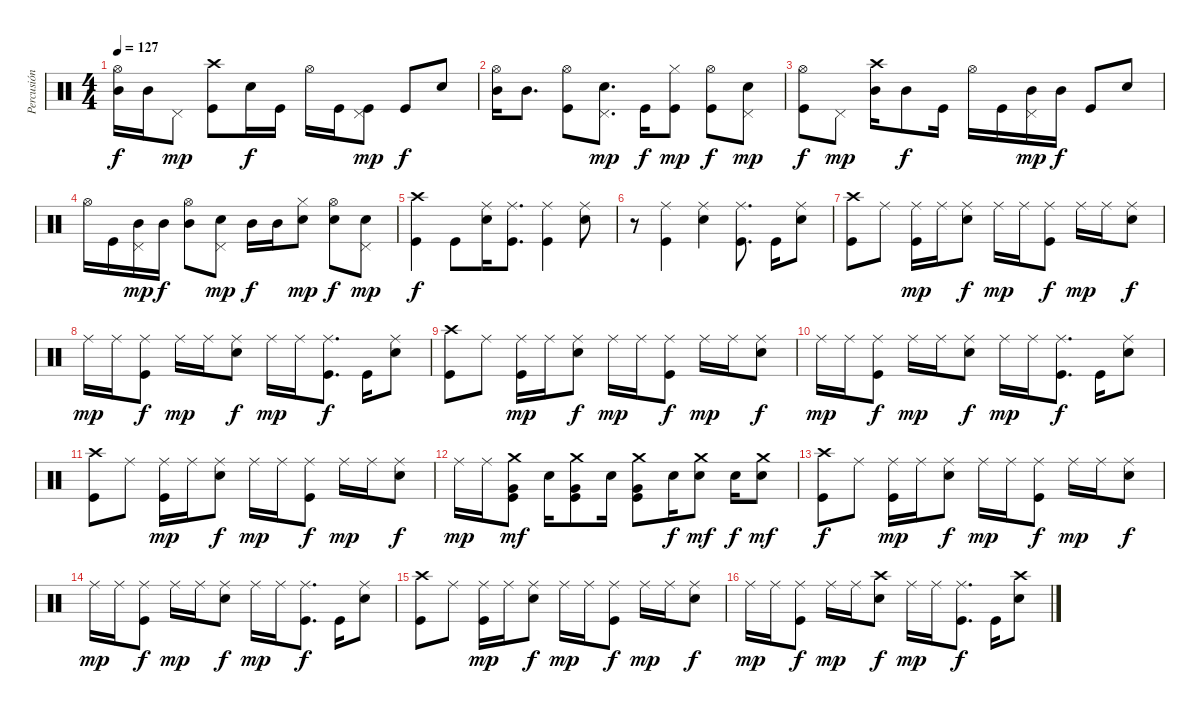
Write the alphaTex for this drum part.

\track ("Percusión" "Percusión") {instrument percussion}
\staff {score}
\articulation defaults
\ts (4 4)
\tempo 127
\clef neutral
\ks c
("Mid Tom (hit)" "Hi-Hat (open)").16{dy f} "Mid Tom (hit)".16 "Pedal Hi-Hat (hit)".8{dy mp} ("Kick (hit)" "Crash high (hit)").8 "Snare (hit) 2".16{dy f} "Kick (hit)".16 "Hi-Hat (open)".16 "Kick (hit)".16 ("Kick (hit)" "Pedal Hi-Hat (hit)").8{dy mp} "Kick (hit)".8{dy f} "Snare (hit) 2".8 |
("Mid Tom (hit)" "Hi-Hat (open)").16 "Mid Tom (hit)".8{d} ("Kick (hit)" "Hi-Hat (open)").8 ("Snare (hit) 2" "Pedal Hi-Hat (hit)").8{d dy mp} "Kick (hit)".16{dy f} ("Kick (hit)" "Hi-Hat (closed)").8{dy mp} ("Kick (hit)" "Hi-Hat (open)").8{dy f} ("Snare (hit) 2" "Pedal Hi-Hat (hit)").8{dy mp} |
("Kick (hit)" "Hi-Hat (open)").8{dy f} "Pedal Hi-Hat (hit)".8{dy mp} ("Mid Tom (hit)" "Crash high (hit)").16 "Mid Tom (hit)".8{dy f} "Kick (hit)".16 "Hi-Hat (open)".16 "Kick (hit)".16 ("Mid Tom (hit)" "Pedal Hi-Hat (hit)").16{dy mp} "Mid Tom (hit)".16{dy f} "Kick (hit)".8 "Snare (hit) 2".8 |
"Hi-Hat (open)".16 "Kick (hit)".16 ("Mid Tom (hit)" "Pedal Hi-Hat (hit)").16{dy mp} "Mid Tom (hit)".16{dy f} ("Mid Tom (hit)" "Hi-Hat (open)").8 ("Snare (hit) 2" "Pedal Hi-Hat (hit)").8{dy mp} "Mid Tom (hit)".16{dy f} "Mid Tom (hit)".16 ("Snare (hit) 2" "Hi-Hat (closed)").8{dy mp} ("Snare (hit) 2" "Hi-Hat (open)").8{dy f} ("Snare (hit) 2" "Pedal Hi-Hat (hit)").8{dy mp} |
("Kick (hit)" "Crash high (hit)").4{dy f} "Kick (hit)".8 ("Snare (hit) 2" "Ride (middle)").16 ("Kick (hit)" "Ride (middle)").8{d} ("Kick (hit)" "Ride (middle)").4 ("Snare (hit) 2" "Ride (middle)").8 |
r.8 ("Kick (hit)" "Ride (middle)").4 ("Snare (hit) 2" "Ride (middle)").4 ("Kick (hit)" "Ride (middle)").8{d} "Kick (hit)".16 ("Snare (hit) 2" "Ride (middle)").8 |
("Kick (hit)" "Crash high (hit)").8 "Ride (middle)".8 ("Kick (hit)" "Ride (middle)").16{dy mp} "Ride (middle)".16 ("Snare (hit) 2" "Ride (middle)").8{dy f} "Ride (middle)".16{dy mp} "Ride (middle)".16 ("Kick (hit)" "Ride (middle)").8{dy f} "Ride (middle)".16{dy mp} "Ride (middle)".16 ("Snare (hit) 2" "Ride (middle)").8{dy f} |
"Ride (middle)".16{dy mp} "Ride (middle)".16 ("Kick (hit)" "Ride (middle)").8{dy f} "Ride (middle)".16{dy mp} "Ride (middle)".16 ("Snare (hit) 2" "Ride (middle)").8{dy f} "Ride (middle)".16{dy mp} "Ride (middle)".16 ("Kick (hit)" "Ride (middle)").8{d dy f} "Kick (hit)".16 ("Snare (hit) 2" "Ride (middle)").8 |
("Kick (hit)" "Crash high (hit)").8 "Ride (middle)".8 ("Kick (hit)" "Ride (middle)").16{dy mp} "Ride (middle)".16 ("Snare (hit) 2" "Ride (middle)").8{dy f} "Ride (middle)".16{dy mp} "Ride (middle)".16 ("Kick (hit)" "Ride (middle)").8{dy f} "Ride (middle)".16{dy mp} "Ride (middle)".16 ("Snare (hit) 2" "Ride (middle)").8{dy f} |
"Ride (middle)".16{dy mp} "Ride (middle)".16 ("Kick (hit)" "Ride (middle)").8{dy f} "Ride (middle)".16{dy mp} "Ride (middle)".16 ("Snare (hit) 2" "Ride (middle)").8{dy f} "Ride (middle)".16{dy mp} "Ride (middle)".16 ("Kick (hit)" "Ride (middle)").8{d dy f} "Kick (hit)".16 ("Snare (hit) 2" "Ride (middle)").8 |
("Kick (hit)" "Crash high (hit)").8 "Ride (middle)".8 ("Kick (hit)" "Ride (middle)").16{dy mp} "Ride (middle)".16 ("Snare (hit) 2" "Ride (middle)").8{dy f} "Ride (middle)".16{dy mp} "Ride (middle)".16 ("Kick (hit)" "Ride (middle)").8{dy f} "Ride (middle)".16{dy mp} "Ride (middle)".16 ("Snare (hit) 2" "Ride (middle)").8{dy f} |
"Ride (middle)".16{dy mp} "Ride (middle)".16 ("Kick (hit)" "Very Low Tom (hit)" "Crash medium (hit)").8{dy mf} "Snare (hit) 2".16 ("Kick (hit)" "Very Low Tom (hit)" "Crash medium (hit)").8 "Snare (hit) 2".16 ("Kick (hit)" "Very Low Tom (hit)" "Crash medium (hit)").8 "Snare (hit) 2".16{dy f} ("Snare (hit) 2" "Crash medium (hit)").8{dy mf} "Snare (hit) 2".16{dy f} ("Snare (hit) 2" "Crash medium (hit)").8{dy mf} |
("Kick (hit)" "Crash high (hit)").8{dy f} "Ride (middle)".8 ("Kick (hit)" "Ride (middle)").16{dy mp} "Ride (middle)".16 ("Snare (hit) 2" "Ride (middle)").8{dy f} "Ride (middle)".16{dy mp} "Ride (middle)".16 ("Kick (hit)" "Ride (middle)").8{dy f} "Ride (middle)".16{dy mp} "Ride (middle)".16 ("Snare (hit) 2" "Ride (middle)").8{dy f} |
"Ride (middle)".16{dy mp} "Ride (middle)".16 ("Kick (hit)" "Ride (middle)").8{dy f} "Ride (middle)".16{dy mp} "Ride (middle)".16 ("Snare (hit) 2" "Ride (middle)").8{dy f} "Ride (middle)".16{dy mp} "Ride (middle)".16 ("Kick (hit)" "Ride (middle)").8{d dy f} "Kick (hit)".16 ("Snare (hit) 2" "Ride (middle)").8 |
("Kick (hit)" "Crash high (hit)").8 "Ride (middle)".8 ("Kick (hit)" "Ride (middle)").16{dy mp} "Ride (middle)".16 ("Snare (hit) 2" "Ride (middle)").8{dy f} "Ride (middle)".16{dy mp} "Ride (middle)".16 ("Kick (hit)" "Ride (middle)").8{dy f} "Ride (middle)".16{dy mp} "Ride (middle)".16 ("Snare (hit) 2" "Ride (middle)").8{dy f} |
"Ride (middle)".16{dy mp} "Ride (middle)".16 ("Kick (hit)" "Ride (middle)").8{dy f} "Ride (middle)".16{dy mp} "Ride (middle)".16 ("Snare (hit) 2" "Crash high (hit)").8{dy f} "Ride (middle)".16{dy mp} "Ride (middle)".16 ("Kick (hit)" "Ride (middle)").8{d dy f} "Kick (hit)".16 ("Snare (hit) 2" "Crash high (hit)").8
